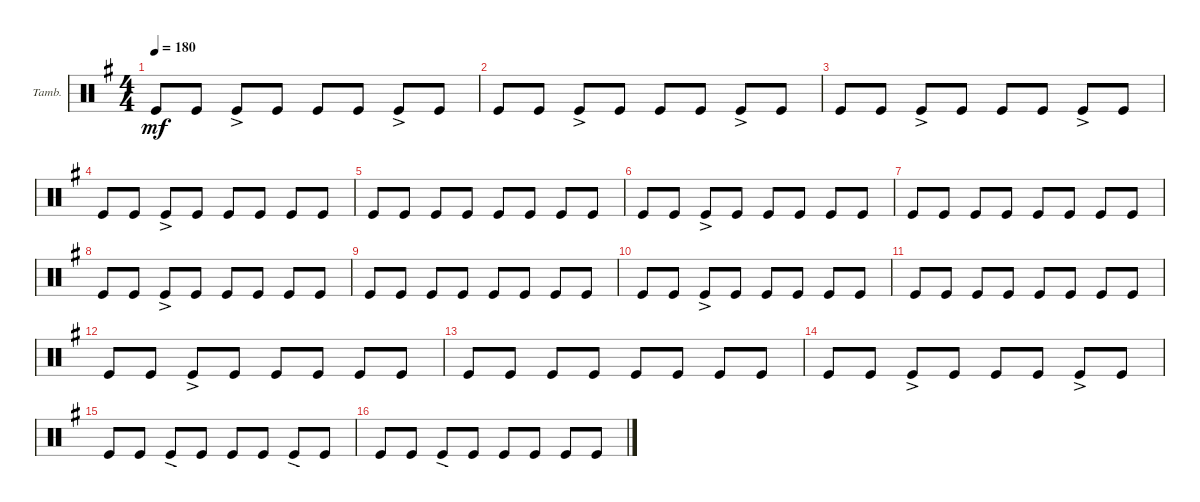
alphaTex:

\defaultSystemsLayout 4
\bracketExtendMode groupsimilarinstruments
\firstSystemTrackNameOrientation horizontal
\otherSystemsTrackNameOrientation horizontal
\track ("Tambourine" "Tamb.") {instrument percussion}
\staff {score}
\articulation defaults
\ts (4 4)
\tempo 180
\clef neutral
\ks g "Kick (hit)".8{dy mf} "Kick (hit)".8 "Kick (hit)"{ac}.8 "Kick (hit)".8 "Kick (hit)".8 "Kick (hit)".8 "Kick (hit)"{ac}.8 "Kick (hit)".8
|
"Kick (hit)".8 "Kick (hit)".8 "Kick (hit)"{ac}.8 "Kick (hit)".8 "Kick (hit)".8 "Kick (hit)".8 "Kick (hit)"{ac}.8 "Kick (hit)".8 |
"Kick (hit)".8 "Kick (hit)".8 "Kick (hit)"{ac}.8 "Kick (hit)".8 "Kick (hit)".8 "Kick (hit)".8 "Kick (hit)"{ac}.8 "Kick (hit)".8 |
"Kick (hit)".8 "Kick (hit)".8 "Kick (hit)"{ac}.8 "Kick (hit)".8 "Kick (hit)".8 "Kick (hit)".8 "Kick (hit)".8 "Kick (hit)".8 |
"Kick (hit)".8 "Kick (hit)".8 "Kick (hit)".8 "Kick (hit)".8 "Kick (hit)".8 "Kick (hit)".8 "Kick (hit)".8 "Kick (hit)".8 |
"Kick (hit)".8 "Kick (hit)".8 "Kick (hit)"{ac}.8 "Kick (hit)".8 "Kick (hit)".8 "Kick (hit)".8 "Kick (hit)".8 "Kick (hit)".8 |
"Kick (hit)".8 "Kick (hit)".8 "Kick (hit)".8 "Kick (hit)".8 "Kick (hit)".8 "Kick (hit)".8 "Kick (hit)".8 "Kick (hit)".8 |
"Kick (hit)".8 "Kick (hit)".8 "Kick (hit)"{ac}.8 "Kick (hit)".8 "Kick (hit)".8 "Kick (hit)".8 "Kick (hit)".8 "Kick (hit)".8 |
"Kick (hit)".8 "Kick (hit)".8 "Kick (hit)".8 "Kick (hit)".8 "Kick (hit)".8 "Kick (hit)".8 "Kick (hit)".8 "Kick (hit)".8 |
"Kick (hit)".8 "Kick (hit)".8 "Kick (hit)"{ac}.8 "Kick (hit)".8 "Kick (hit)".8 "Kick (hit)".8 "Kick (hit)".8 "Kick (hit)".8 |
"Kick (hit)".8 "Kick (hit)".8 "Kick (hit)".8 "Kick (hit)".8 "Kick (hit)".8 "Kick (hit)".8 "Kick (hit)".8 "Kick (hit)".8 |
"Kick (hit)".8 "Kick (hit)".8 "Kick (hit)"{ac}.8 "Kick (hit)".8 "Kick (hit)".8 "Kick (hit)".8 "Kick (hit)".8 "Kick (hit)".8 |
"Kick (hit)".8 "Kick (hit)".8 "Kick (hit)".8 "Kick (hit)".8 "Kick (hit)".8 "Kick (hit)".8 "Kick (hit)".8 "Kick (hit)".8 |
"Kick (hit)".8 "Kick (hit)".8 "Kick (hit)"{ac}.8 "Kick (hit)".8 "Kick (hit)".8 "Kick (hit)".8 "Kick (hit)"{ac}.8 "Kick (hit)".8 |
"Kick (hit)".8 "Kick (hit)".8 "Kick (hit)"{ac}.8 "Kick (hit)".8 "Kick (hit)".8 "Kick (hit)".8 "Kick (hit)"{ac}.8 "Kick (hit)".8 |
"Kick (hit)".8 "Kick (hit)".8 "Kick (hit)"{ac}.8 "Kick (hit)".8 "Kick (hit)".8 "Kick (hit)".8 "Kick (hit)".8 "Kick (hit)".8
